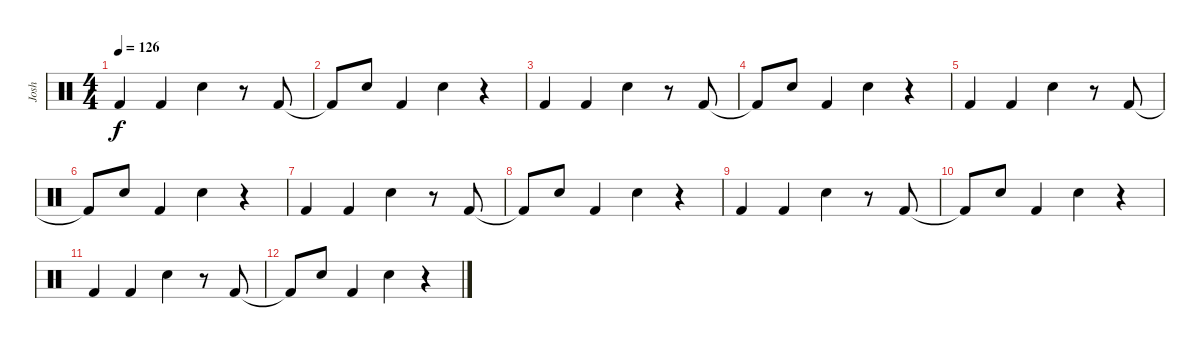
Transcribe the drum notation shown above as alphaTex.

\track ("Josh" "Josh") {instrument percussion}
\staff {score}
\articulation defaults
\ts (4 4)
\tempo 126
\clef neutral
\ks c "Kick (hit) 2".4{dy f} "Kick (hit) 2".4 "Snare (hit) 2".4
r.8 "Kick (hit) 2".8 |
"Kick (hit) 2"{t}.8 "Snare (hit) 2".8 "Kick (hit) 2".4 "Snare (hit) 2".4 r.4 |
"Kick (hit) 2".4 "Kick (hit) 2".4 "Snare (hit) 2".4 r.8 "Kick (hit) 2".8 |
"Kick (hit) 2"{t}.8 "Snare (hit) 2".8 "Kick (hit) 2".4 "Snare (hit) 2".4 r.4 |
"Kick (hit) 2".4 "Kick (hit) 2".4 "Snare (hit) 2".4 r.8 "Kick (hit) 2".8 |
"Kick (hit) 2"{t}.8 "Snare (hit) 2".8 "Kick (hit) 2".4 "Snare (hit) 2".4 r.4 |
"Kick (hit) 2".4 "Kick (hit) 2".4 "Snare (hit) 2".4 r.8 "Kick (hit) 2".8 |
"Kick (hit) 2"{t}.8 "Snare (hit) 2".8 "Kick (hit) 2".4 "Snare (hit) 2".4 r.4 |
"Kick (hit) 2".4 "Kick (hit) 2".4 "Snare (hit) 2".4 r.8 "Kick (hit) 2".8 |
"Kick (hit) 2"{t}.8 "Snare (hit) 2".8 "Kick (hit) 2".4 "Snare (hit) 2".4 r.4 |
"Kick (hit) 2".4 "Kick (hit) 2".4 "Snare (hit) 2".4 r.8 "Kick (hit) 2".8 |
"Kick (hit) 2"{t}.8 "Snare (hit) 2".8 "Kick (hit) 2".4 "Snare (hit) 2".4 r.4
